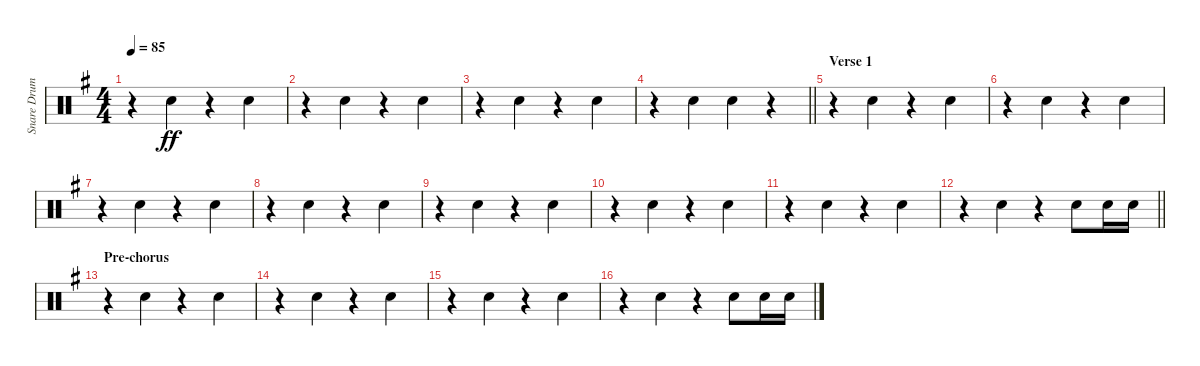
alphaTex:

\track ("Snare Drum" "Snare Drum") {instrument percussion}
\staff {score}
\articulation defaults
\ts (4 4)
\tempo 85
\clef neutral
\ks g
r.4{dy ff beam merge} "Electric Snare (hit)".4 r.4{beam merge} "Electric Snare (hit)".4 |
r.4{beam merge} "Electric Snare (hit)".4 r.4{beam merge} "Electric Snare (hit)".4 |
r.4{beam merge} "Electric Snare (hit)".4 r.4{beam merge} "Electric Snare (hit)".4 |
\barLineRight lightlight
r.4{beam merge} "Electric Snare (hit)".4 "Electric Snare (hit)".4 r.4 |
\section ("" "Verse 1")
r.4{beam merge} "Electric Snare (hit)".4 r.4{beam merge} "Electric Snare (hit)".4 |
r.4{beam merge} "Electric Snare (hit)".4 r.4{beam merge} "Electric Snare (hit)".4 |
r.4{beam merge} "Electric Snare (hit)".4 r.4{beam merge} "Electric Snare (hit)".4 |
r.4{beam merge} "Electric Snare (hit)".4 r.4{beam merge} "Electric Snare (hit)".4 |
r.4{beam merge} "Electric Snare (hit)".4 r.4{beam merge} "Electric Snare (hit)".4 |
r.4{beam merge} "Electric Snare (hit)".4 r.4{beam merge} "Electric Snare (hit)".4 |
r.4{beam merge} "Electric Snare (hit)".4 r.4{beam merge} "Electric Snare (hit)".4 |
\barLineRight lightlight
r.4{beam merge} "Electric Snare (hit)".4 r.4 "Electric Snare (hit)".8 "Electric Snare (hit)".16 "Electric Snare (hit)".16 |
\section ("" "Pre-chorus")
r.4{beam merge} "Electric Snare (hit)".4 r.4{beam merge} "Electric Snare (hit)".4 |
r.4{beam merge} "Electric Snare (hit)".4 r.4{beam merge} "Electric Snare (hit)".4 |
r.4{beam merge} "Electric Snare (hit)".4 r.4{beam merge} "Electric Snare (hit)".4 |
r.4{beam merge} "Electric Snare (hit)".4 r.4 "Electric Snare (hit)".8 "Electric Snare (hit)".16 "Electric Snare (hit)".16
